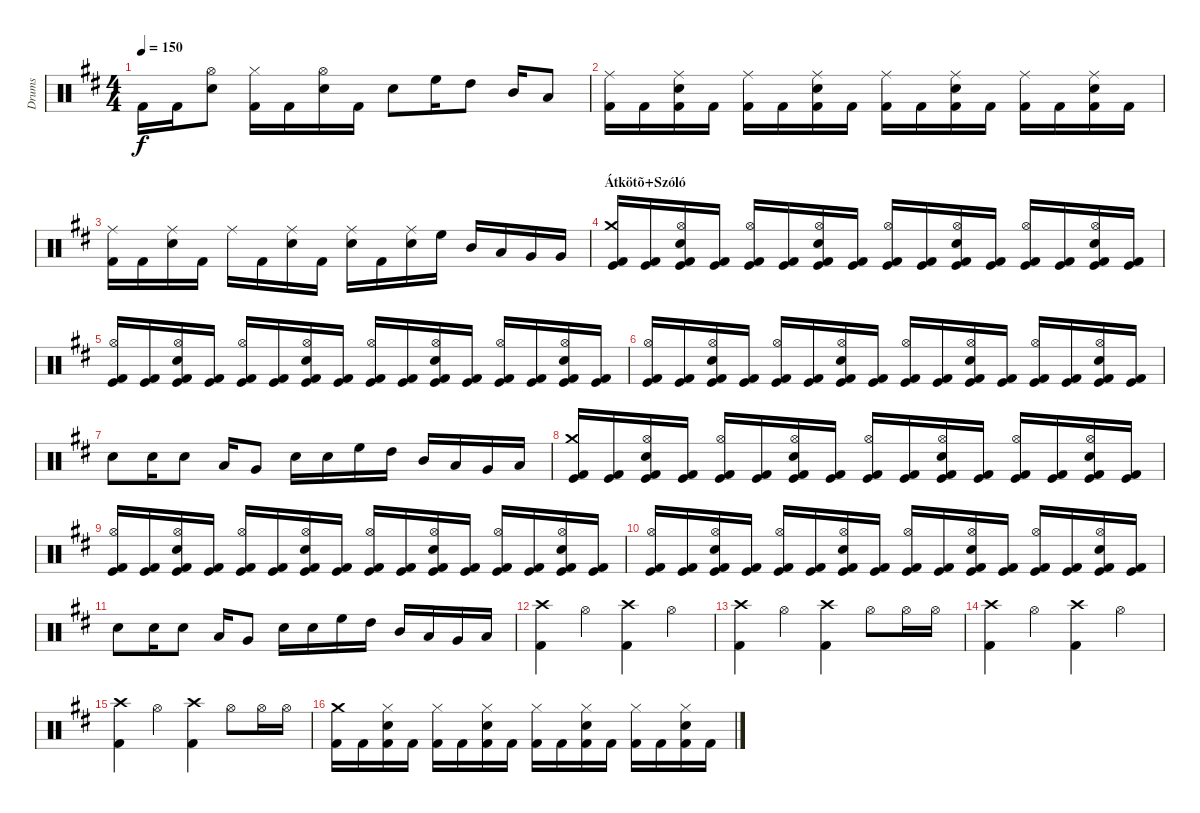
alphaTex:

\track ("Drums" "Drums") {instrument percussion}
\staff {score}
\articulation defaults
\ts (4 4)
\tempo 150
\clef neutral
\ks d "Kick (hit) 2".16{dy f} "Kick (hit) 2".16
("Hi-Hat (open)" "Snare (hit) 2").8 ("Hi-Hat (closed)" "Kick (hit) 2").16 "Kick (hit) 2".16 ("Hi-Hat (open)" "Snare (hit) 2").16 "Kick (hit) 2".16 "Snare (hit) 2".8 "High Floor Tom (hit)".16 "High Tom (hit)".8 "Mid Tom (hit)".16 "Low Tom (hit)".8 |
("Ride (middle)" "Kick (hit) 2").16 "Kick (hit) 2".16 ("Ride (middle)" "Snare (hit) 2" "Kick (hit) 2").16 "Kick (hit) 2".16 ("Ride (middle)" "Kick (hit) 2").16 "Kick (hit) 2".16 ("Ride (middle)" "Snare (hit) 2" "Kick (hit) 2").16 "Kick (hit) 2".16 ("Ride (middle)" "Kick (hit) 2").16 "Kick (hit) 2".16 ("Ride (middle)" "Snare (hit) 2" "Kick (hit) 2").16 "Kick (hit) 2".16 ("Ride (middle)" "Kick (hit) 2").16 "Kick (hit) 2".16 ("Ride (middle)" "Snare (hit) 2" "Kick (hit) 2").16 "Kick (hit) 2".16 |
("Ride (middle)" "Kick (hit) 2").16 "Kick (hit) 2".16 ("Ride (middle)" "Snare (hit) 2").16 "Kick (hit) 2".16 "Ride (middle)".16 "Kick (hit) 2".16 ("Ride (middle)" "Snare (hit) 2").16 "Kick (hit) 2".16 ("Ride (middle)" "Snare (hit) 2").16 "Kick (hit) 2".16 ("Ride (middle)" "Snare (hit) 2").16 "High Floor Tom (hit)".16 "Mid Tom (hit)".16 "Low Tom (hit)".16 "Very Low Tom (hit)".16 "Very Low Tom (hit)".16 |
\section ("" "Átkötõ+Szóló")
("Crash medium (hit)" "Kick (hit) 2" "Kick (hit)").16 ("Kick (hit) 2" "Kick (hit)").16 ("Hi-Hat (open)" "Snare (hit) 2" "Kick (hit) 2" "Kick (hit)").16 ("Kick (hit) 2" "Kick (hit)").16 ("Hi-Hat (open)" "Kick (hit) 2" "Kick (hit)").16 ("Kick (hit) 2" "Kick (hit)").16 ("Hi-Hat (open)" "Snare (hit) 2" "Kick (hit) 2" "Kick (hit)").16 ("Kick (hit) 2" "Kick (hit)").16 ("Hi-Hat (open)" "Kick (hit) 2" "Kick (hit)").16 ("Kick (hit) 2" "Kick (hit)").16 ("Hi-Hat (open)" "Snare (hit) 2" "Kick (hit) 2" "Kick (hit)").16 ("Kick (hit) 2" "Kick (hit)").16 ("Hi-Hat (open)" "Kick (hit) 2" "Kick (hit)").16 ("Kick (hit) 2" "Kick (hit)").16 ("Hi-Hat (open)" "Snare (hit) 2" "Kick (hit) 2" "Kick (hit)").16 ("Kick (hit) 2" "Kick (hit)").16 |
("Hi-Hat (open)" "Kick (hit) 2" "Kick (hit)").16 ("Kick (hit) 2" "Kick (hit)").16 ("Hi-Hat (open)" "Snare (hit) 2" "Kick (hit) 2" "Kick (hit)").16 ("Kick (hit) 2" "Kick (hit)").16 ("Hi-Hat (open)" "Kick (hit) 2" "Kick (hit)").16 ("Kick (hit) 2" "Kick (hit)").16 ("Hi-Hat (open)" "Snare (hit) 2" "Kick (hit) 2" "Kick (hit)").16 ("Kick (hit) 2" "Kick (hit)").16 ("Hi-Hat (open)" "Kick (hit) 2" "Kick (hit)").16 ("Kick (hit) 2" "Kick (hit)").16 ("Hi-Hat (open)" "Snare (hit) 2" "Kick (hit) 2" "Kick (hit)").16 ("Kick (hit) 2" "Kick (hit)").16 ("Hi-Hat (open)" "Kick (hit) 2" "Kick (hit)").16 ("Kick (hit) 2" "Kick (hit)").16 ("Hi-Hat (open)" "Snare (hit) 2" "Kick (hit) 2" "Kick (hit)").16 ("Kick (hit) 2" "Kick (hit)").16 |
("Hi-Hat (open)" "Kick (hit) 2" "Kick (hit)").16 ("Kick (hit) 2" "Kick (hit)").16 ("Hi-Hat (open)" "Snare (hit) 2" "Kick (hit) 2" "Kick (hit)").16 ("Kick (hit) 2" "Kick (hit)").16 ("Hi-Hat (open)" "Kick (hit) 2" "Kick (hit)").16 ("Kick (hit) 2" "Kick (hit)").16 ("Hi-Hat (open)" "Snare (hit) 2" "Kick (hit) 2" "Kick (hit)").16 ("Kick (hit) 2" "Kick (hit)").16 ("Hi-Hat (open)" "Kick (hit) 2" "Kick (hit)").16 ("Kick (hit) 2" "Kick (hit)").16 ("Hi-Hat (open)" "Snare (hit) 2" "Kick (hit) 2" "Kick (hit)").16 ("Kick (hit) 2" "Kick (hit)").16 ("Hi-Hat (open)" "Kick (hit) 2" "Kick (hit)").16 ("Kick (hit) 2" "Kick (hit)").16 ("Hi-Hat (open)" "Snare (hit) 2" "Kick (hit) 2" "Kick (hit)").16 ("Kick (hit) 2" "Kick (hit)").16 |
"Snare (hit) 2".8 "Snare (hit) 2".16 "Snare (hit) 2".8 "Low Tom (hit)".16 "Very Low Tom (hit)".8 "Snare (hit) 2".16 "Snare (hit) 2".16 "High Floor Tom (hit)".16 "High Tom (hit)".16 "Mid Tom (hit)".16 "Low Tom (hit)".16 "Very Low Tom (hit)".16 "Low Floor Tom (hit)".16 |
("Crash medium (hit)" "Kick (hit) 2" "Kick (hit)").16 ("Kick (hit) 2" "Kick (hit)").16 ("Hi-Hat (open)" "Snare (hit) 2" "Kick (hit) 2" "Kick (hit)").16 ("Kick (hit) 2" "Kick (hit)").16 ("Hi-Hat (open)" "Kick (hit) 2" "Kick (hit)").16 ("Kick (hit) 2" "Kick (hit)").16 ("Hi-Hat (open)" "Snare (hit) 2" "Kick (hit) 2" "Kick (hit)").16 ("Kick (hit) 2" "Kick (hit)").16 ("Hi-Hat (open)" "Kick (hit) 2" "Kick (hit)").16 ("Kick (hit) 2" "Kick (hit)").16 ("Hi-Hat (open)" "Snare (hit) 2" "Kick (hit) 2" "Kick (hit)").16 ("Kick (hit) 2" "Kick (hit)").16 ("Hi-Hat (open)" "Kick (hit) 2" "Kick (hit)").16 ("Kick (hit) 2" "Kick (hit)").16 ("Hi-Hat (open)" "Snare (hit) 2" "Kick (hit) 2" "Kick (hit)").16 ("Kick (hit) 2" "Kick (hit)").16 |
("Hi-Hat (open)" "Kick (hit) 2" "Kick (hit)").16 ("Kick (hit) 2" "Kick (hit)").16 ("Hi-Hat (open)" "Snare (hit) 2" "Kick (hit) 2" "Kick (hit)").16 ("Kick (hit) 2" "Kick (hit)").16 ("Hi-Hat (open)" "Kick (hit) 2" "Kick (hit)").16 ("Kick (hit) 2" "Kick (hit)").16 ("Hi-Hat (open)" "Snare (hit) 2" "Kick (hit) 2" "Kick (hit)").16 ("Kick (hit) 2" "Kick (hit)").16 ("Hi-Hat (open)" "Kick (hit) 2" "Kick (hit)").16 ("Kick (hit) 2" "Kick (hit)").16 ("Hi-Hat (open)" "Snare (hit) 2" "Kick (hit) 2" "Kick (hit)").16 ("Kick (hit) 2" "Kick (hit)").16 ("Hi-Hat (open)" "Kick (hit) 2" "Kick (hit)").16 ("Kick (hit) 2" "Kick (hit)").16 ("Hi-Hat (open)" "Snare (hit) 2" "Kick (hit) 2" "Kick (hit)").16 ("Kick (hit) 2" "Kick (hit)").16 |
("Hi-Hat (open)" "Kick (hit) 2" "Kick (hit)").16 ("Kick (hit) 2" "Kick (hit)").16 ("Hi-Hat (open)" "Snare (hit) 2" "Kick (hit) 2" "Kick (hit)").16 ("Kick (hit) 2" "Kick (hit)").16 ("Hi-Hat (open)" "Kick (hit) 2" "Kick (hit)").16 ("Kick (hit) 2" "Kick (hit)").16 ("Hi-Hat (open)" "Snare (hit) 2" "Kick (hit) 2" "Kick (hit)").16 ("Kick (hit) 2" "Kick (hit)").16 ("Hi-Hat (open)" "Kick (hit) 2" "Kick (hit)").16 ("Kick (hit) 2" "Kick (hit)").16 ("Hi-Hat (open)" "Snare (hit) 2" "Kick (hit) 2" "Kick (hit)").16 ("Kick (hit) 2" "Kick (hit)").16 ("Hi-Hat (open)" "Kick (hit) 2" "Kick (hit)").16 ("Kick (hit) 2" "Kick (hit)").16 ("Hi-Hat (open)" "Snare (hit) 2" "Kick (hit) 2" "Kick (hit)").16 ("Kick (hit) 2" "Kick (hit)").16 |
"Snare (hit) 2".8 "Snare (hit) 2".16 "Snare (hit) 2".8 "Low Tom (hit)".16 "Very Low Tom (hit)".8 "Snare (hit) 2".16 "Snare (hit) 2".16 "High Floor Tom (hit)".16 "High Tom (hit)".16 "Mid Tom (hit)".16 "Low Tom (hit)".16 "Very Low Tom (hit)".16 "Low Floor Tom (hit)".16 |
("Crash high (hit)" "Kick (hit) 2").4 "Hi-Hat (open)".4 ("Crash high (hit)" "Kick (hit) 2").4 "Hi-Hat (open)".4 |
("Crash high (hit)" "Kick (hit) 2").4 "Hi-Hat (open)".4 ("Crash high (hit)" "Kick (hit) 2").4 "Hi-Hat (open)".8 "Hi-Hat (open)".16 "Hi-Hat (open)".16 |
("Crash high (hit)" "Kick (hit) 2").4 "Hi-Hat (open)".4 ("Crash high (hit)" "Kick (hit) 2").4 "Hi-Hat (open)".4 |
("Crash high (hit)" "Kick (hit) 2").4 "Hi-Hat (open)".4 ("Crash high (hit)" "Kick (hit) 2").4 "Hi-Hat (open)".8 "Hi-Hat (open)".16 "Hi-Hat (open)".16 |
("Crash medium (hit)" "Kick (hit) 2").16 "Kick (hit) 2".16 ("Hi-Hat (closed)" "Snare (hit) 2" "Kick (hit) 2").16 "Kick (hit) 2".16 ("Hi-Hat (closed)" "Kick (hit) 2").16 "Kick (hit) 2".16 ("Hi-Hat (closed)" "Snare (hit) 2" "Kick (hit) 2").16 "Kick (hit) 2".16 ("Hi-Hat (closed)" "Kick (hit) 2").16 "Kick (hit) 2".16 ("Hi-Hat (closed)" "Snare (hit) 2" "Kick (hit) 2").16 "Kick (hit) 2".16 ("Hi-Hat (closed)" "Kick (hit) 2").16 "Kick (hit) 2".16 ("Hi-Hat (closed)" "Snare (hit) 2" "Kick (hit) 2").16 "Kick (hit) 2".16
